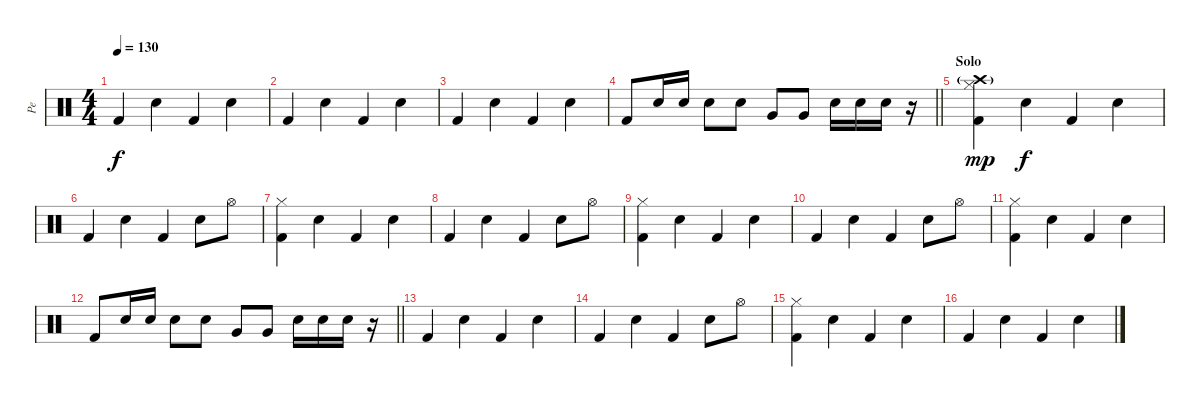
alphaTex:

\track ("Pe" "Pe") {instrument percussion}
\staff {score}
\articulation defaults
\ts (4 4)
\tempo 130
\clef neutral
\ks c "Kick (hit) 2".4{dy f} "Electric Snare (hit)".4 "Kick (hit) 2".4 "Electric Snare (hit)".4
|
"Kick (hit) 2".4 "Electric Snare (hit)".4 "Kick (hit) 2".4 "Electric Snare (hit)".4 |
"Kick (hit) 2".4 "Electric Snare (hit)".4 "Kick (hit) 2".4 "Electric Snare (hit)".4 |
\barLineRight lightlight "Kick (hit) 2".8 "Electric Snare (hit)".16 "Electric Snare (hit)".16 "Electric Snare (hit)".8 "Electric Snare (hit)".8 "Very Low Tom (hit)".8 "Very Low Tom (hit)".8 "Electric Snare (hit)".16 "Electric Snare (hit)".16 "Electric Snare (hit)".16
r.16 |
\section ("" "Solo")
("Crash high (hit)"{g} "Hi-Hat (closed)" "Kick (hit) 2").4{dy mp} "Electric Snare (hit)".4{dy f} "Kick (hit) 2".4 "Electric Snare (hit)".4 |
"Kick (hit) 2".4 "Electric Snare (hit)".4 "Kick (hit) 2".4 "Electric Snare (hit)".8 "Hi-Hat (open)".8 |
("Hi-Hat (closed)" "Kick (hit) 2").4 "Electric Snare (hit)".4 "Kick (hit) 2".4 "Electric Snare (hit)".4 |
"Kick (hit) 2".4 "Electric Snare (hit)".4 "Kick (hit) 2".4 "Electric Snare (hit)".8 "Hi-Hat (open)".8 |
("Hi-Hat (closed)" "Kick (hit) 2").4 "Electric Snare (hit)".4 "Kick (hit) 2".4 "Electric Snare (hit)".4 |
"Kick (hit) 2".4 "Electric Snare (hit)".4 "Kick (hit) 2".4 "Electric Snare (hit)".8 "Hi-Hat (open)".8 |
("Hi-Hat (closed)" "Kick (hit) 2").4 "Electric Snare (hit)".4 "Kick (hit) 2".4 "Electric Snare (hit)".4 |
\barLineRight lightlight "Kick (hit) 2".8 "Electric Snare (hit)".16 "Electric Snare (hit)".16 "Electric Snare (hit)".8 "Electric Snare (hit)".8 "Very Low Tom (hit)".8 "Very Low Tom (hit)".8 "Electric Snare (hit)".16 "Electric Snare (hit)".16 "Electric Snare (hit)".16
r.16 |
"Kick (hit) 2".4 "Electric Snare (hit)".4 "Kick (hit) 2".4 "Electric Snare (hit)".4 |
"Kick (hit) 2".4 "Electric Snare (hit)".4 "Kick (hit) 2".4 "Electric Snare (hit)".8 "Hi-Hat (open)".8 |
("Hi-Hat (closed)" "Kick (hit) 2").4 "Electric Snare (hit)".4 "Kick (hit) 2".4 "Electric Snare (hit)".4 |
"Kick (hit) 2".4 "Electric Snare (hit)".4 "Kick (hit) 2".4 "Electric Snare (hit)".4
